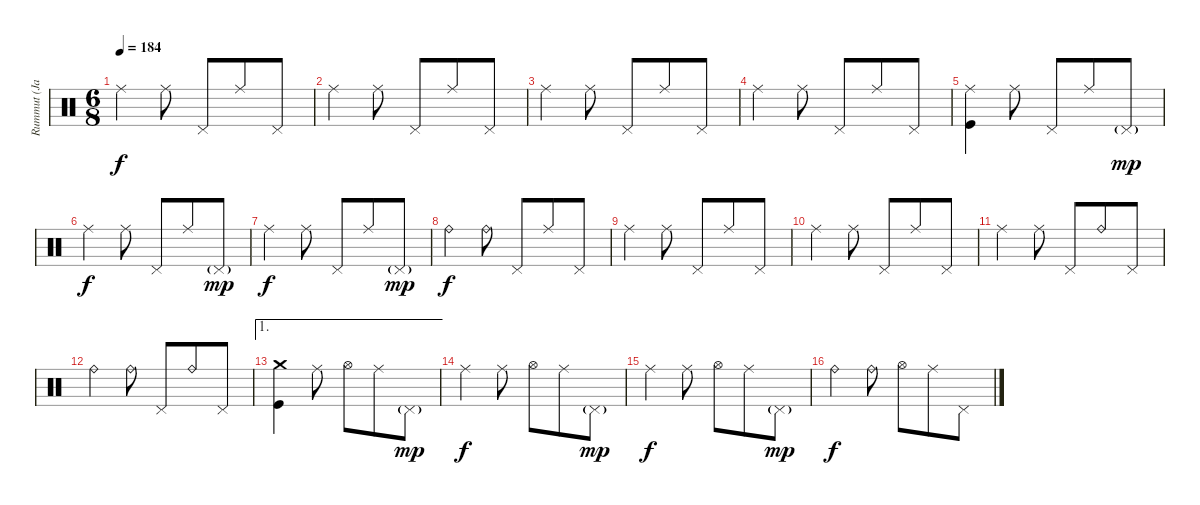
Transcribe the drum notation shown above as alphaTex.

\track ("Rummut (Janne)" "Rummut (Ja") {instrument percussion}
\staff {score}
\articulation defaults
\ts (6 8)
\tempo 184
\clef neutral
\ks c "Ride (middle)".4{dy f} "Ride (middle)".8 "Pedal Hi-Hat (hit)".8 "Ride (middle)".8 "Pedal Hi-Hat (hit)".8
|
"Ride (middle)".4 "Ride (middle)".8 "Pedal Hi-Hat (hit)".8 "Ride (middle)".8 "Pedal Hi-Hat (hit)".8 |
"Ride (middle)".4 "Ride (middle)".8 "Pedal Hi-Hat (hit)".8 "Ride (middle)".8 "Pedal Hi-Hat (hit)".8 |
"Ride (middle)".4 "Ride (middle)".8 "Pedal Hi-Hat (hit)".8 "Ride (middle)".8 "Pedal Hi-Hat (hit)".8 |
("Ride (middle)" "Kick (hit)").4 "Ride (middle)".8 "Pedal Hi-Hat (hit)".8 "Ride (middle)".8 "Pedal Hi-Hat (hit)"{g}.8{dy mp} |
"Ride (middle)".4{dy f} "Ride (middle)".8 "Pedal Hi-Hat (hit)".8 "Ride (middle)".8 "Pedal Hi-Hat (hit)"{g}.8{dy mp} |
"Ride (middle)".4{dy f} "Ride (middle)".8 "Pedal Hi-Hat (hit)".8 "Ride (middle)".8 "Pedal Hi-Hat (hit)"{g}.8{dy mp} |
"Ride (bell)".4{dy f} "Ride (bell)".8 "Pedal Hi-Hat (hit)".8 "Ride (middle)".8 "Pedal Hi-Hat (hit)".8 |
"Ride (middle)".4 "Ride (middle)".8 "Pedal Hi-Hat (hit)".8 "Ride (middle)".8 "Pedal Hi-Hat (hit)".8 |
"Ride (middle)".4 "Ride (middle)".8 "Pedal Hi-Hat (hit)".8 "Ride (middle)".8 "Pedal Hi-Hat (hit)".8 |
"Ride (middle)".4 "Ride (middle)".8 "Pedal Hi-Hat (hit)".8 "Ride (bell)".8 "Pedal Hi-Hat (hit)".8 |
"Ride (bell)".4 "Ride (bell)".8 "Pedal Hi-Hat (hit)".8 "Ride (bell)".8 "Pedal Hi-Hat (hit)".8 |
\ae 1
("Crash medium (hit)" "Kick (hit)").4 "Ride (middle)".8 "Hi-Hat (open)".8 "Ride (middle)".8 "Pedal Hi-Hat (hit)"{g}.8{dy mp} |
"Ride (middle)".4{dy f} "Ride (middle)".8 "Hi-Hat (open)".8 "Ride (middle)".8 "Pedal Hi-Hat (hit)"{g}.8{dy mp} |
"Ride (middle)".4{dy f} "Ride (middle)".8 "Hi-Hat (open)".8 "Ride (middle)".8 "Pedal Hi-Hat (hit)"{g}.8{dy mp} |
"Ride (bell)".4{dy f} "Ride (bell)".8 "Hi-Hat (open)".8 "Ride (middle)".8 "Pedal Hi-Hat (hit)".8
